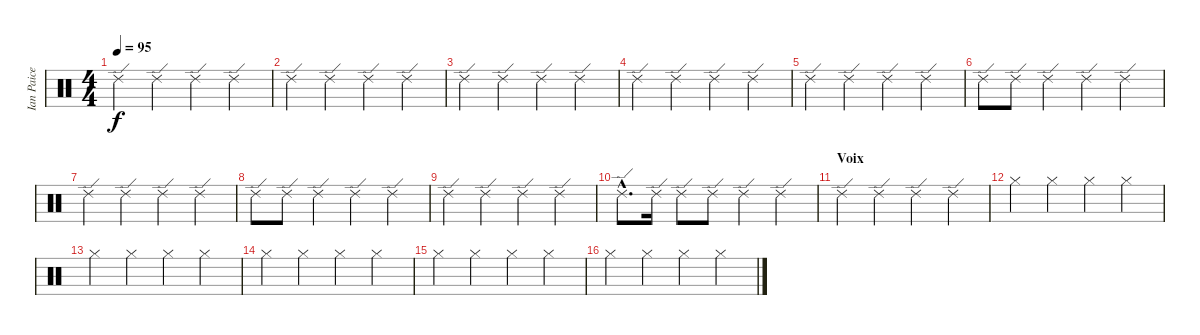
\track ("Ian Paice" "Ian Paice") {instrument percussion}
\staff {score}
\articulation defaults
\ts (4 4)
\tempo 95
\tempo 88
\tempo 95
\clef neutral
\ks c "Ride (edge) 2".4{dy f} "Ride (edge) 2".4 "Ride (edge) 2".4 "Ride (edge) 2".4
|
"Ride (edge) 2".4 "Ride (edge) 2".4 "Ride (edge) 2".4 "Ride (edge) 2".4 |
"Ride (edge) 2".4 "Ride (edge) 2".4 "Ride (edge) 2".4 "Ride (edge) 2".4 |
"Ride (edge) 2".4 "Ride (edge) 2".4 "Ride (edge) 2".4 "Ride (edge) 2".4 |
"Ride (edge) 2".4 "Ride (edge) 2".4 "Ride (edge) 2".4 "Ride (edge) 2".4 |
"Ride (edge) 2".8 "Ride (edge) 2".8 "Ride (edge) 2".4 "Ride (edge) 2".4 "Ride (edge) 2".4 |
"Ride (edge) 2".4 "Ride (edge) 2".4 "Ride (edge) 2".4 "Ride (edge) 2".4 |
"Ride (edge) 2".8 "Ride (edge) 2".8 "Ride (edge) 2".4 "Ride (edge) 2".4 "Ride (edge) 2".4 |
"Ride (edge) 2".4 "Ride (edge) 2".4 "Ride (edge) 2".4 "Ride (edge) 2".4 |
"Ride (edge) 2"{hac}.8{d} "Ride (edge) 2".16 "Ride (edge) 2".8 "Ride (edge) 2".8 "Ride (edge) 2".4 "Ride (edge) 2".4 |
\section ("" "Voix")
"Ride (edge) 2".4 "Ride (edge) 2".4 "Ride (edge) 2".4 "Ride (edge) 2".4 |
"Hi-Hat (closed)".4 "Hi-Hat (closed)".4 "Hi-Hat (closed)".4 "Hi-Hat (closed)".4 |
"Hi-Hat (closed)".4 "Hi-Hat (closed)".4 "Hi-Hat (closed)".4 "Hi-Hat (closed)".4 |
"Hi-Hat (closed)".4 "Hi-Hat (closed)".4 "Hi-Hat (closed)".4 "Hi-Hat (closed)".4 |
"Hi-Hat (closed)".4 "Hi-Hat (closed)".4 "Hi-Hat (closed)".4 "Hi-Hat (closed)".4 |
"Hi-Hat (closed)".4 "Hi-Hat (closed)".4 "Hi-Hat (closed)".4 "Hi-Hat (closed)".4
